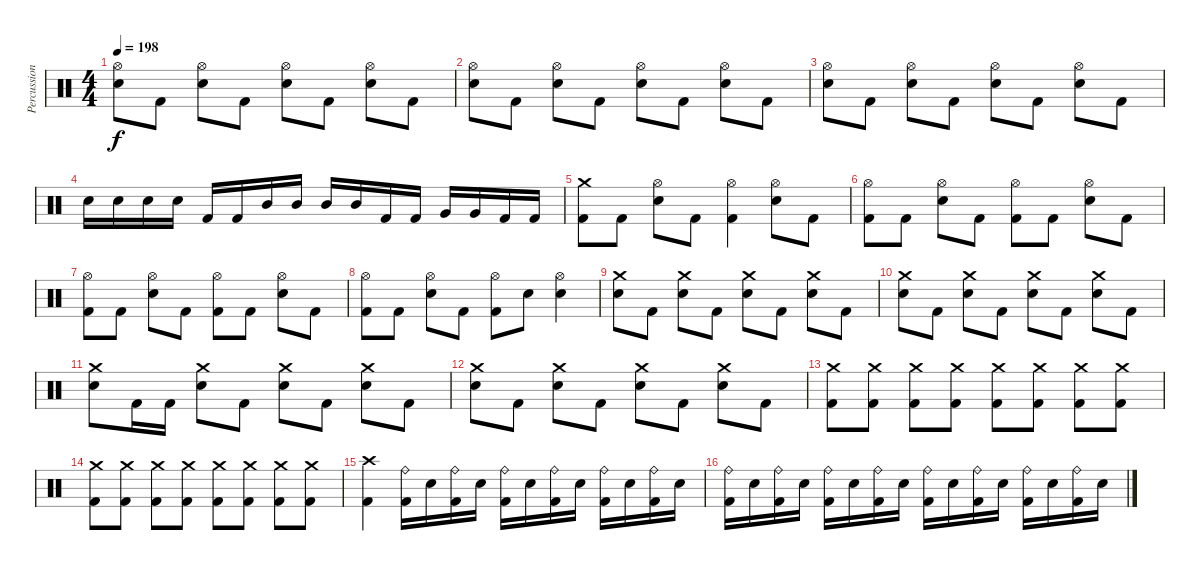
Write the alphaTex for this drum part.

\track ("Percussion" "Percussion") {instrument percussion}
\staff {score}
\articulation defaults
\ts (4 4)
\tempo 198
\clef neutral
\ks c
("Hi-Hat (open)" "Electric Snare (hit)").8{dy f} "Kick (hit) 2".8 ("Hi-Hat (open)" "Electric Snare (hit)").8 "Kick (hit) 2".8 ("Hi-Hat (open)" "Electric Snare (hit)").8 "Kick (hit) 2".8 ("Hi-Hat (open)" "Electric Snare (hit)").8 "Kick (hit) 2".8 |
("Hi-Hat (open)" "Electric Snare (hit)").8 "Kick (hit) 2".8 ("Hi-Hat (open)" "Electric Snare (hit)").8 "Kick (hit) 2".8 ("Hi-Hat (open)" "Electric Snare (hit)").8 "Kick (hit) 2".8 ("Hi-Hat (open)" "Electric Snare (hit)").8 "Kick (hit) 2".8 |
("Hi-Hat (open)" "Electric Snare (hit)").8 "Kick (hit) 2".8 ("Hi-Hat (open)" "Electric Snare (hit)").8 "Kick (hit) 2".8 ("Hi-Hat (open)" "Electric Snare (hit)").8 "Kick (hit) 2".8 ("Hi-Hat (open)" "Electric Snare (hit)").8 "Kick (hit) 2".8 |
"Electric Snare (hit)".16 "Electric Snare (hit)".16 "Electric Snare (hit)".16 "Electric Snare (hit)".16 "Kick (hit) 2".16 "Kick (hit) 2".16 "Mid Tom (hit)".16 "Mid Tom (hit)".16 "Mid Tom (hit)".16 "Mid Tom (hit)".16 "Kick (hit) 2".16 "Kick (hit) 2".16 "Very Low Tom (hit)".16 "Very Low Tom (hit)".16 "Kick (hit) 2".16 "Kick (hit) 2".16 |
("Crash medium (hit)" "Kick (hit) 2").8 "Kick (hit) 2".8 ("Hi-Hat (open)" "Electric Snare (hit)").8 "Kick (hit) 2".8 ("Hi-Hat (open)" "Kick (hit) 2").4 ("Hi-Hat (open)" "Electric Snare (hit)").8 "Kick (hit) 2".8 |
("Hi-Hat (open)" "Kick (hit) 2").8 "Kick (hit) 2".8 ("Hi-Hat (open)" "Electric Snare (hit)").8 "Kick (hit) 2".8 ("Hi-Hat (open)" "Kick (hit) 2").8 "Kick (hit) 2".8 ("Hi-Hat (open)" "Electric Snare (hit)").8 "Kick (hit) 2".8 |
("Hi-Hat (open)" "Kick (hit) 2").8 "Kick (hit) 2".8 ("Hi-Hat (open)" "Electric Snare (hit)").8 "Kick (hit) 2".8 ("Hi-Hat (open)" "Kick (hit) 2").8 "Kick (hit) 2".8 ("Hi-Hat (open)" "Electric Snare (hit)").8 "Kick (hit) 2".8 |
("Hi-Hat (open)" "Kick (hit) 2").8 "Kick (hit) 2".8 ("Hi-Hat (open)" "Electric Snare (hit)").8 "Kick (hit) 2".8 ("Hi-Hat (open)" "Kick (hit) 2").8 "Electric Snare (hit)".8 ("Hi-Hat (open)" "Electric Snare (hit)").4 |
("Crash medium (hit)" "Electric Snare (hit)").8 "Kick (hit) 2".8 ("Crash medium (hit)" "Electric Snare (hit)").8 "Kick (hit) 2".8 ("Crash medium (hit)" "Electric Snare (hit)").8 "Kick (hit) 2".8 ("Crash medium (hit)" "Electric Snare (hit)").8 "Kick (hit) 2".8 |
("Crash medium (hit)" "Electric Snare (hit)").8 "Kick (hit) 2".8 ("Crash medium (hit)" "Electric Snare (hit)").8 "Kick (hit) 2".8 ("Crash medium (hit)" "Electric Snare (hit)").8 "Kick (hit) 2".8 ("Crash medium (hit)" "Electric Snare (hit)").8 "Kick (hit) 2".8 |
("Crash medium (hit)" "Electric Snare (hit)").8 "Kick (hit) 2".16 "Kick (hit) 2".16 ("Crash medium (hit)" "Electric Snare (hit)").8 "Kick (hit) 2".8 ("Crash medium (hit)" "Electric Snare (hit)").8 "Kick (hit) 2".8 ("Crash medium (hit)" "Electric Snare (hit)").8 "Kick (hit) 2".8 |
("Crash medium (hit)" "Electric Snare (hit)").8 "Kick (hit) 2".8 ("Crash medium (hit)" "Electric Snare (hit)").8 "Kick (hit) 2".8 ("Crash medium (hit)" "Electric Snare (hit)").8 "Kick (hit) 2".8 ("Crash medium (hit)" "Electric Snare (hit)").8 "Kick (hit) 2".8 |
("Crash medium (hit)" "Kick (hit) 2").8 ("Crash medium (hit)" "Kick (hit) 2").8 ("Crash medium (hit)" "Kick (hit) 2").8 ("Crash medium (hit)" "Kick (hit) 2").8 ("Crash medium (hit)" "Kick (hit) 2").8 ("Crash medium (hit)" "Kick (hit) 2").8 ("Crash medium (hit)" "Kick (hit) 2").8 ("Crash medium (hit)" "Kick (hit) 2").8 |
("Crash medium (hit)" "Kick (hit) 2").8 ("Crash medium (hit)" "Kick (hit) 2").8 ("Crash medium (hit)" "Kick (hit) 2").8 ("Crash medium (hit)" "Kick (hit) 2").8 ("Crash medium (hit)" "Kick (hit) 2").8 ("Crash medium (hit)" "Kick (hit) 2").8 ("Crash medium (hit)" "Kick (hit) 2").8 ("Crash medium (hit)" "Kick (hit) 2").8 |
("Crash high (hit)" "Kick (hit) 2").4 ("Ride (bell)" "Kick (hit) 2").16 "Electric Snare (hit)".16 ("Ride (bell)" "Kick (hit) 2").16 "Electric Snare (hit)".16 ("Ride (bell)" "Kick (hit) 2").16 "Electric Snare (hit)".16 ("Ride (bell)" "Kick (hit) 2").16 "Electric Snare (hit)".16 ("Ride (bell)" "Kick (hit) 2").16 "Electric Snare (hit)".16 ("Ride (bell)" "Kick (hit) 2").16 "Electric Snare (hit)".16 |
("Ride (bell)" "Kick (hit) 2").16 "Electric Snare (hit)".16 ("Ride (bell)" "Kick (hit) 2").16 "Electric Snare (hit)".16 ("Ride (bell)" "Kick (hit) 2").16 "Electric Snare (hit)".16 ("Ride (bell)" "Kick (hit) 2").16 "Electric Snare (hit)".16 ("Ride (bell)" "Kick (hit) 2").16 "Electric Snare (hit)".16 ("Ride (bell)" "Kick (hit) 2").16 "Electric Snare (hit)".16 ("Ride (bell)" "Kick (hit) 2").16 "Electric Snare (hit)".16 ("Ride (bell)" "Kick (hit) 2").16 "Electric Snare (hit)".16
